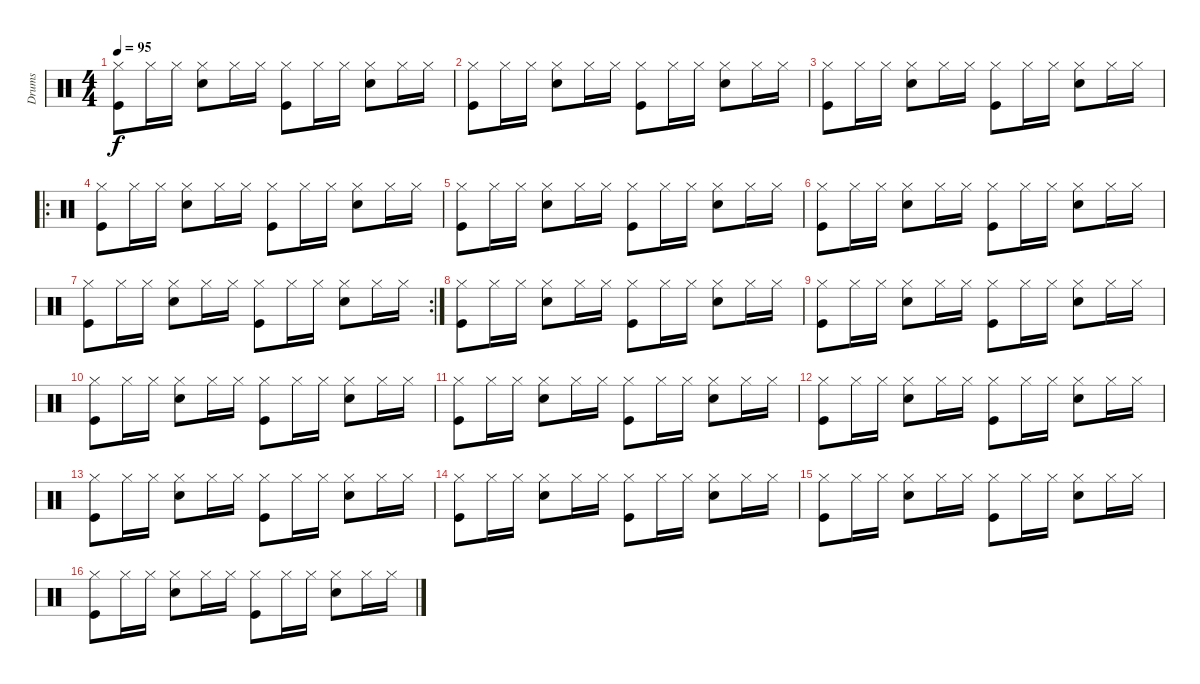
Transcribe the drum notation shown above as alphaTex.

\track ("Drums" "Drums") {instrument percussion}
\staff {score}
\articulation defaults
\ts (4 4)
\tempo 95
\clef neutral
\ks c
("Hi-Hat (closed)" "Kick (hit)").8{dy f} "Hi-Hat (closed)".16 "Hi-Hat (closed)".16 ("Hi-Hat (closed)" "Snare (hit) 2").8 "Hi-Hat (closed)".16 "Hi-Hat (closed)".16 ("Hi-Hat (closed)" "Kick (hit)").8 "Hi-Hat (closed)".16 "Hi-Hat (closed)".16 ("Hi-Hat (closed)" "Snare (hit) 2").8 "Hi-Hat (closed)".16 "Hi-Hat (closed)".16 |
("Hi-Hat (closed)" "Kick (hit)").8 "Hi-Hat (closed)".16 "Hi-Hat (closed)".16 ("Hi-Hat (closed)" "Snare (hit) 2").8 "Hi-Hat (closed)".16 "Hi-Hat (closed)".16 ("Hi-Hat (closed)" "Kick (hit)").8 "Hi-Hat (closed)".16 "Hi-Hat (closed)".16 ("Hi-Hat (closed)" "Snare (hit) 2").8 "Hi-Hat (closed)".16 "Hi-Hat (closed)".16 |
("Hi-Hat (closed)" "Kick (hit)").8 "Hi-Hat (closed)".16 "Hi-Hat (closed)".16 ("Hi-Hat (closed)" "Snare (hit) 2").8 "Hi-Hat (closed)".16 "Hi-Hat (closed)".16 ("Hi-Hat (closed)" "Kick (hit)").8 "Hi-Hat (closed)".16 "Hi-Hat (closed)".16 ("Hi-Hat (closed)" "Snare (hit) 2").8 "Hi-Hat (closed)".16 "Hi-Hat (closed)".16 |
\ro
("Hi-Hat (closed)" "Kick (hit)").8 "Hi-Hat (closed)".16 "Hi-Hat (closed)".16 ("Hi-Hat (closed)" "Snare (hit) 2").8 "Hi-Hat (closed)".16 "Hi-Hat (closed)".16 ("Hi-Hat (closed)" "Kick (hit)").8 "Hi-Hat (closed)".16 "Hi-Hat (closed)".16 ("Hi-Hat (closed)" "Snare (hit) 2").8 "Hi-Hat (closed)".16 "Hi-Hat (closed)".16 |
("Hi-Hat (closed)" "Kick (hit)").8 "Hi-Hat (closed)".16 "Hi-Hat (closed)".16 ("Hi-Hat (closed)" "Snare (hit) 2").8 "Hi-Hat (closed)".16 "Hi-Hat (closed)".16 ("Hi-Hat (closed)" "Kick (hit)").8 "Hi-Hat (closed)".16 "Hi-Hat (closed)".16 ("Hi-Hat (closed)" "Snare (hit) 2").8 "Hi-Hat (closed)".16 "Hi-Hat (closed)".16 |
("Hi-Hat (closed)" "Kick (hit)").8 "Hi-Hat (closed)".16 "Hi-Hat (closed)".16 ("Hi-Hat (closed)" "Snare (hit) 2").8 "Hi-Hat (closed)".16 "Hi-Hat (closed)".16 ("Hi-Hat (closed)" "Kick (hit)").8 "Hi-Hat (closed)".16 "Hi-Hat (closed)".16 ("Hi-Hat (closed)" "Snare (hit) 2").8 "Hi-Hat (closed)".16 "Hi-Hat (closed)".16 |
\rc 2
("Hi-Hat (closed)" "Kick (hit)").8 "Hi-Hat (closed)".16 "Hi-Hat (closed)".16 ("Hi-Hat (closed)" "Snare (hit) 2").8 "Hi-Hat (closed)".16 "Hi-Hat (closed)".16 ("Hi-Hat (closed)" "Kick (hit)").8 "Hi-Hat (closed)".16 "Hi-Hat (closed)".16 ("Hi-Hat (closed)" "Snare (hit) 2").8 "Hi-Hat (closed)".16 "Hi-Hat (closed)".16 |
("Hi-Hat (closed)" "Kick (hit)").8 "Hi-Hat (closed)".16 "Hi-Hat (closed)".16 ("Hi-Hat (closed)" "Snare (hit) 2").8 "Hi-Hat (closed)".16 "Hi-Hat (closed)".16 ("Hi-Hat (closed)" "Kick (hit)").8 "Hi-Hat (closed)".16 "Hi-Hat (closed)".16 ("Hi-Hat (closed)" "Snare (hit) 2").8 "Hi-Hat (closed)".16 "Hi-Hat (closed)".16 |
("Hi-Hat (closed)" "Kick (hit)").8 "Hi-Hat (closed)".16 "Hi-Hat (closed)".16 ("Hi-Hat (closed)" "Snare (hit) 2").8 "Hi-Hat (closed)".16 "Hi-Hat (closed)".16 ("Hi-Hat (closed)" "Kick (hit)").8 "Hi-Hat (closed)".16 "Hi-Hat (closed)".16 ("Hi-Hat (closed)" "Snare (hit) 2").8 "Hi-Hat (closed)".16 "Hi-Hat (closed)".16 |
("Hi-Hat (closed)" "Kick (hit)").8 "Hi-Hat (closed)".16 "Hi-Hat (closed)".16 ("Hi-Hat (closed)" "Snare (hit) 2").8 "Hi-Hat (closed)".16 "Hi-Hat (closed)".16 ("Hi-Hat (closed)" "Kick (hit)").8 "Hi-Hat (closed)".16 "Hi-Hat (closed)".16 ("Hi-Hat (closed)" "Snare (hit) 2").8 "Hi-Hat (closed)".16 "Hi-Hat (closed)".16 |
("Hi-Hat (closed)" "Kick (hit)").8 "Hi-Hat (closed)".16 "Hi-Hat (closed)".16 ("Hi-Hat (closed)" "Snare (hit) 2").8 "Hi-Hat (closed)".16 "Hi-Hat (closed)".16 ("Hi-Hat (closed)" "Kick (hit)").8 "Hi-Hat (closed)".16 "Hi-Hat (closed)".16 ("Hi-Hat (closed)" "Snare (hit) 2").8 "Hi-Hat (closed)".16 "Hi-Hat (closed)".16 |
("Hi-Hat (closed)" "Kick (hit)").8 "Hi-Hat (closed)".16 "Hi-Hat (closed)".16 ("Hi-Hat (closed)" "Snare (hit) 2").8 "Hi-Hat (closed)".16 "Hi-Hat (closed)".16 ("Hi-Hat (closed)" "Kick (hit)").8 "Hi-Hat (closed)".16 "Hi-Hat (closed)".16 ("Hi-Hat (closed)" "Snare (hit) 2").8 "Hi-Hat (closed)".16 "Hi-Hat (closed)".16 |
("Hi-Hat (closed)" "Kick (hit)").8 "Hi-Hat (closed)".16 "Hi-Hat (closed)".16 ("Hi-Hat (closed)" "Snare (hit) 2").8 "Hi-Hat (closed)".16 "Hi-Hat (closed)".16 ("Hi-Hat (closed)" "Kick (hit)").8 "Hi-Hat (closed)".16 "Hi-Hat (closed)".16 ("Hi-Hat (closed)" "Snare (hit) 2").8 "Hi-Hat (closed)".16 "Hi-Hat (closed)".16 |
("Hi-Hat (closed)" "Kick (hit)").8 "Hi-Hat (closed)".16 "Hi-Hat (closed)".16 ("Hi-Hat (closed)" "Snare (hit) 2").8 "Hi-Hat (closed)".16 "Hi-Hat (closed)".16 ("Hi-Hat (closed)" "Kick (hit)").8 "Hi-Hat (closed)".16 "Hi-Hat (closed)".16 ("Hi-Hat (closed)" "Snare (hit) 2").8 "Hi-Hat (closed)".16 "Hi-Hat (closed)".16 |
("Hi-Hat (closed)" "Kick (hit)").8 "Hi-Hat (closed)".16 "Hi-Hat (closed)".16 ("Hi-Hat (closed)" "Snare (hit) 2").8 "Hi-Hat (closed)".16 "Hi-Hat (closed)".16 ("Hi-Hat (closed)" "Kick (hit)").8 "Hi-Hat (closed)".16 "Hi-Hat (closed)".16 ("Hi-Hat (closed)" "Snare (hit) 2").8 "Hi-Hat (closed)".16 "Hi-Hat (closed)".16 |
("Hi-Hat (closed)" "Kick (hit)").8 "Hi-Hat (closed)".16 "Hi-Hat (closed)".16 ("Hi-Hat (closed)" "Snare (hit) 2").8 "Hi-Hat (closed)".16 "Hi-Hat (closed)".16 ("Hi-Hat (closed)" "Kick (hit)").8 "Hi-Hat (closed)".16 "Hi-Hat (closed)".16 ("Hi-Hat (closed)" "Snare (hit) 2").8 "Hi-Hat (closed)".16 "Hi-Hat (closed)".16
